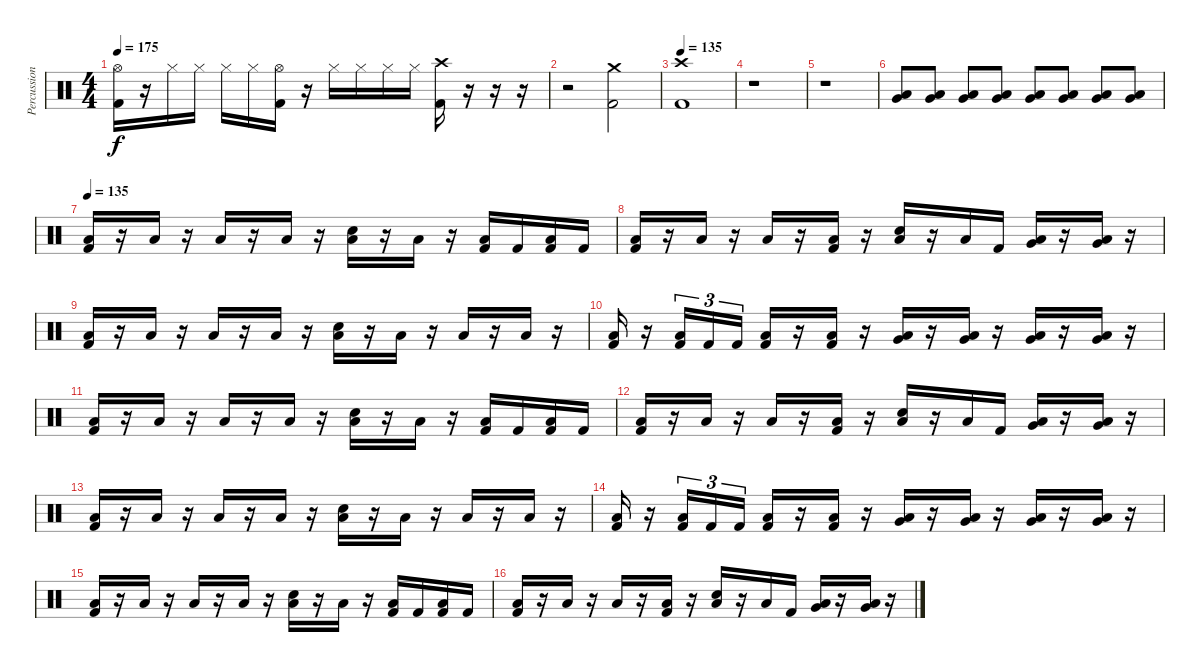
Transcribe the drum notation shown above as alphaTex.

\track ("Percussion" "Percussion") {instrument percussion}
\staff {score}
\articulation defaults
\ts (4 4)
\tempo 175
\clef neutral
\ks c
("Hi-Hat (open)" "Kick (hit) 2").16{dy f} r.16 "Hi-Hat (closed)".16 "Hi-Hat (closed)".16 "Hi-Hat (closed)".16 "Hi-Hat (closed)".16 ("Hi-Hat (open)" "Kick (hit) 2").16 r.16 "Hi-Hat (closed)".16 "Hi-Hat (closed)".16 "Hi-Hat (closed)".16 "Hi-Hat (closed)".16 ("Crash high (hit)" "Kick (hit) 2").16 r.16 r.16 r.16 |
r.2 ("Crash medium (hit)" "Kick (hit) 2").2 |
\tempo 135
("Crash high (hit)" "Kick (hit) 2").1 |
r.1 |
r.1{volume 4} |
("Low Tom (hit)" "Very Low Tom (hit)").8{volume 12} ("Low Tom (hit)" "Very Low Tom (hit)").8 ("Low Tom (hit)" "Very Low Tom (hit)").8 ("Low Tom (hit)" "Very Low Tom (hit)").8 ("Low Tom (hit)" "Very Low Tom (hit)").8 ("Low Tom (hit)" "Very Low Tom (hit)").8 ("Low Tom (hit)" "Very Low Tom (hit)").8 ("Low Tom (hit)" "Very Low Tom (hit)").8 |
\tempo 135
("Low Floor Tom (hit)" "Kick (hit) 2").16 r.16 "Low Floor Tom (hit)".16 r.16 "Low Floor Tom (hit)".16 r.16 "Low Floor Tom (hit)".16 r.16 ("Snare (hit) 2" "Low Floor Tom (hit)").16 r.16 "Low Floor Tom (hit)".16 r.16 ("Low Floor Tom (hit)" "Kick (hit) 2").16 "Kick (hit) 2".16 ("Low Floor Tom (hit)" "Kick (hit) 2").16 "Kick (hit) 2".16 |
("Low Floor Tom (hit)" "Kick (hit) 2").16 r.16 "Low Floor Tom (hit)".16 r.16 "Low Floor Tom (hit)".16 r.16 ("Low Floor Tom (hit)" "Kick (hit) 2").16 r.16 ("Snare (hit) 2" "Low Floor Tom (hit)").16 r.16 "Low Floor Tom (hit)".16 "Kick (hit) 2".16 ("Low Tom (hit)" "Very Low Tom (hit)").16 r.16 ("Very Low Tom (hit)" "Low Floor Tom (hit)").16 r.16 |
("Low Floor Tom (hit)" "Kick (hit) 2").16 r.16 "Low Floor Tom (hit)".16 r.16 "Low Floor Tom (hit)".16 r.16 "Low Floor Tom (hit)".16 r.16 ("Snare (hit) 2" "Low Floor Tom (hit)").16 r.16 "Low Floor Tom (hit)".16 r.16 "Low Floor Tom (hit)".16 r.16 "Low Floor Tom (hit)".16 r.16 |
("Low Floor Tom (hit)" "Kick (hit) 2").16 r.16 ("Low Floor Tom (hit)" "Kick (hit) 2").16{tu (3 2)} "Kick (hit) 2".16{tu (3 2)} "Kick (hit) 2".16{tu (3 2)} ("Low Floor Tom (hit)" "Kick (hit) 2").16 r.16 ("Low Floor Tom (hit)" "Kick (hit) 2").16 r.16 ("Very Low Tom (hit)" "Low Floor Tom (hit)").16 r.16 ("Very Low Tom (hit)" "Low Floor Tom (hit)").16 r.16 ("Low Tom (hit)" "Very Low Tom (hit)").16 r.16 ("Low Tom (hit)" "Very Low Tom (hit)").16 r.16 |
("Low Floor Tom (hit)" "Kick (hit) 2").16 r.16 "Low Floor Tom (hit)".16 r.16 "Low Floor Tom (hit)".16 r.16 "Low Floor Tom (hit)".16 r.16 ("Snare (hit) 2" "Low Floor Tom (hit)").16 r.16 "Low Floor Tom (hit)".16 r.16 ("Low Floor Tom (hit)" "Kick (hit) 2").16 "Kick (hit) 2".16 ("Low Floor Tom (hit)" "Kick (hit) 2").16 "Kick (hit) 2".16 |
("Low Floor Tom (hit)" "Kick (hit) 2").16 r.16 "Low Floor Tom (hit)".16 r.16 "Low Floor Tom (hit)".16 r.16 ("Low Floor Tom (hit)" "Kick (hit) 2").16 r.16 ("Snare (hit) 2" "Low Floor Tom (hit)").16 r.16 "Low Floor Tom (hit)".16 "Kick (hit) 2".16 ("Low Tom (hit)" "Very Low Tom (hit)").16 r.16 ("Very Low Tom (hit)" "Low Floor Tom (hit)").16 r.16 |
("Low Floor Tom (hit)" "Kick (hit) 2").16 r.16 "Low Floor Tom (hit)".16 r.16 "Low Floor Tom (hit)".16 r.16 "Low Floor Tom (hit)".16 r.16 ("Snare (hit) 2" "Low Floor Tom (hit)").16 r.16 "Low Floor Tom (hit)".16 r.16 "Low Floor Tom (hit)".16 r.16 "Low Floor Tom (hit)".16 r.16 |
("Low Floor Tom (hit)" "Kick (hit) 2").16 r.16 ("Low Floor Tom (hit)" "Kick (hit) 2").16{tu (3 2)} "Kick (hit) 2".16{tu (3 2)} "Kick (hit) 2".16{tu (3 2)} ("Low Floor Tom (hit)" "Kick (hit) 2").16 r.16 ("Low Floor Tom (hit)" "Kick (hit) 2").16 r.16 ("Very Low Tom (hit)" "Low Floor Tom (hit)").16 r.16 ("Very Low Tom (hit)" "Low Floor Tom (hit)").16 r.16 ("Low Tom (hit)" "Very Low Tom (hit)").16 r.16 ("Low Tom (hit)" "Very Low Tom (hit)").16 r.16 |
("Low Floor Tom (hit)" "Kick (hit) 2").16 r.16 "Low Floor Tom (hit)".16 r.16 "Low Floor Tom (hit)".16 r.16 "Low Floor Tom (hit)".16 r.16 ("Snare (hit) 2" "Low Floor Tom (hit)").16 r.16 "Low Floor Tom (hit)".16 r.16 ("Low Floor Tom (hit)" "Kick (hit) 2").16 "Kick (hit) 2".16 ("Low Floor Tom (hit)" "Kick (hit) 2").16 "Kick (hit) 2".16 |
("Low Floor Tom (hit)" "Kick (hit) 2").16 r.16 "Low Floor Tom (hit)".16 r.16 "Low Floor Tom (hit)".16 r.16 ("Low Floor Tom (hit)" "Kick (hit) 2").16 r.16 ("Snare (hit) 2" "Low Floor Tom (hit)").16 r.16 "Low Floor Tom (hit)".16 "Kick (hit) 2".16 ("Low Tom (hit)" "Very Low Tom (hit)").16 r.16 ("Very Low Tom (hit)" "Low Floor Tom (hit)").16 r.16
